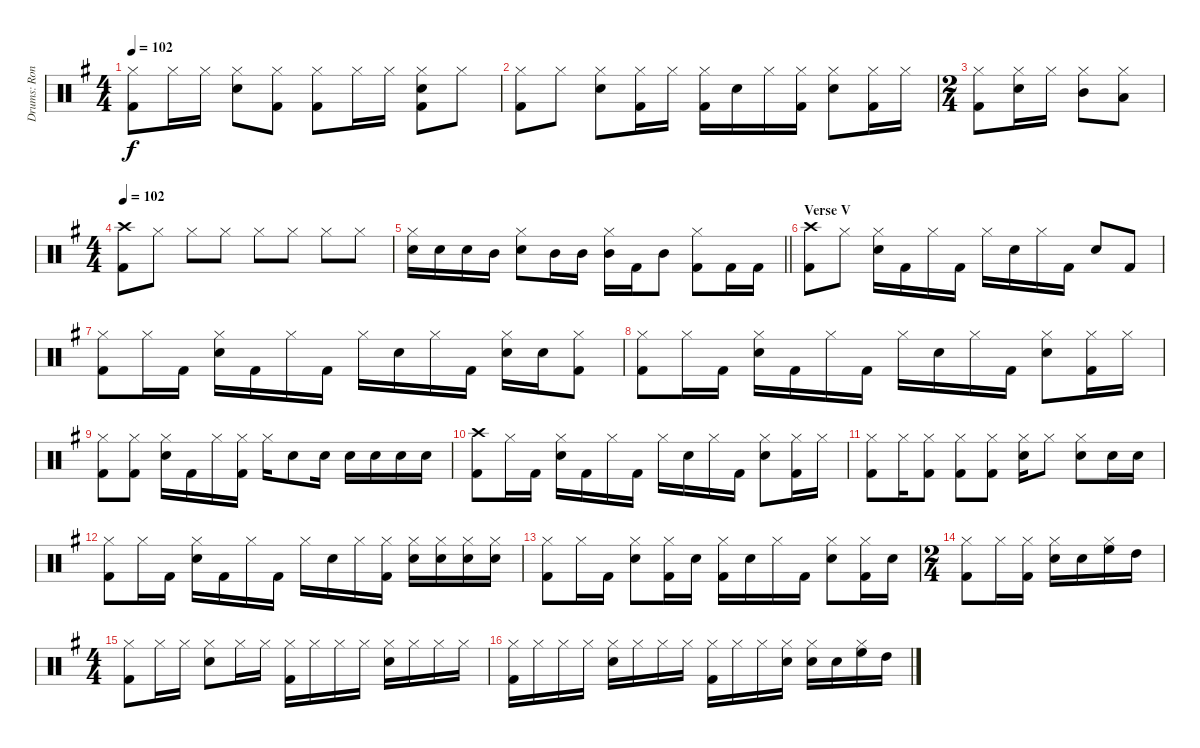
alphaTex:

\track ("Drums: Ronnie" "Drums: Ron") {instrument percussion}
\staff {score}
\articulation defaults
\ts (4 4)
\tempo 102
\clef neutral
\ks g
("Hi-Hat (closed)" "Kick (hit) 2").8{dy f} "Hi-Hat (closed)".16 "Hi-Hat (closed)".16 ("Hi-Hat (closed)" "Electric Snare (hit)").8 ("Hi-Hat (closed)" "Kick (hit) 2").8 ("Hi-Hat (closed)" "Kick (hit) 2").8 "Hi-Hat (closed)".16 "Hi-Hat (closed)".16 ("Hi-Hat (closed)" "Electric Snare (hit)" "Kick (hit) 2").8 "Hi-Hat (closed)".8 |
("Hi-Hat (closed)" "Kick (hit) 2").8 "Hi-Hat (closed)".8 ("Hi-Hat (closed)" "Electric Snare (hit)").8 ("Hi-Hat (closed)" "Kick (hit) 2").16 "Hi-Hat (closed)".16 ("Hi-Hat (closed)" "Kick (hit) 2").16 "Electric Snare (hit)".16 "Hi-Hat (closed)".16 ("Hi-Hat (closed)" "Kick (hit) 2").16 ("Hi-Hat (closed)" "Electric Snare (hit)").8 ("Hi-Hat (closed)" "Kick (hit) 2").16 "Hi-Hat (closed)".16 |
\ts (2 4)
("Hi-Hat (closed)" "Kick (hit) 2").8 ("Hi-Hat (closed)" "Electric Snare (hit)").16 "Hi-Hat (closed)".16 ("Hi-Hat (closed)" "Mid Tom (hit)").8 ("Hi-Hat (closed)" "Low Tom (hit)").8 |
\ts (4 4)
\tempo 102
("Crash high (hit)" "Kick (hit) 2").8 "Hi-Hat (closed)".8 "Hi-Hat (closed)".8 "Hi-Hat (closed)".8 "Hi-Hat (closed)".8 "Hi-Hat (closed)".8 "Hi-Hat (closed)".8 "Hi-Hat (closed)".8 |
\barLineRight lightlight
("Hi-Hat (closed)" "Electric Snare (hit)").16 "Electric Snare (hit)".16 "Electric Snare (hit)".16 "Mid Tom (hit)".16 ("Hi-Hat (closed)" "Electric Snare (hit)").8 "Mid Tom (hit)".16 "Mid Tom (hit)".16 ("Hi-Hat (closed)" "Mid Tom (hit)").16 "Kick (hit) 2".16 "Mid Tom (hit)".8 ("Hi-Hat (closed)" "Kick (hit) 2").8 "Kick (hit) 2".16 "Kick (hit) 2".16 |
\section ("" "Verse V")
("Crash high (hit)" "Kick (hit) 2").8 "Hi-Hat (closed)".8 ("Hi-Hat (closed)" "Electric Snare (hit)").16 "Kick (hit) 2".16 "Hi-Hat (closed)".16 "Kick (hit) 2".16 "Hi-Hat (closed)".16 "Electric Snare (hit)".16 "Hi-Hat (closed)".16 "Kick (hit) 2".16 "Electric Snare (hit)".8 "Kick (hit) 2".8 |
("Hi-Hat (closed)" "Kick (hit) 2").8 "Hi-Hat (closed)".16 "Kick (hit) 2".16 ("Hi-Hat (closed)" "Electric Snare (hit)").16 "Kick (hit) 2".16 "Hi-Hat (closed)".16 "Kick (hit) 2".16 "Hi-Hat (closed)".16 "Electric Snare (hit)".16 "Hi-Hat (closed)".16 "Kick (hit) 2".16 ("Hi-Hat (closed)" "Electric Snare (hit)").16 "Electric Snare (hit)".16 ("Hi-Hat (closed)" "Kick (hit) 2").8 |
("Hi-Hat (closed)" "Kick (hit) 2").8 "Hi-Hat (closed)".16 "Kick (hit) 2".16 ("Hi-Hat (closed)" "Electric Snare (hit)").16 "Kick (hit) 2".16 "Hi-Hat (closed)".16 "Kick (hit) 2".16 "Hi-Hat (closed)".16 "Electric Snare (hit)".16 "Hi-Hat (closed)".16 "Kick (hit) 2".16 ("Hi-Hat (closed)" "Electric Snare (hit)").8 ("Hi-Hat (closed)" "Kick (hit) 2").16 "Hi-Hat (closed)".16 |
("Hi-Hat (closed)" "Kick (hit) 2").8 ("Hi-Hat (closed)" "Kick (hit) 2").8 ("Hi-Hat (closed)" "Electric Snare (hit)").16 "Kick (hit) 2".16 "Hi-Hat (closed)".16 ("Hi-Hat (closed)" "Kick (hit) 2").16 "Hi-Hat (closed)".16 "Electric Snare (hit)".8 "Electric Snare (hit)".16 "Electric Snare (hit)".16 "Electric Snare (hit)".16 "Electric Snare (hit)".16 "Electric Snare (hit)".16 |
("Crash high (hit)" "Kick (hit) 2").8 "Hi-Hat (closed)".16 "Kick (hit) 2".16 ("Hi-Hat (closed)" "Electric Snare (hit)").16 "Kick (hit) 2".16 "Hi-Hat (closed)".16 "Kick (hit) 2".16 "Hi-Hat (closed)".16 "Electric Snare (hit)".16 "Hi-Hat (closed)".16 "Kick (hit) 2".16 ("Hi-Hat (closed)" "Electric Snare (hit)").8 ("Hi-Hat (closed)" "Kick (hit) 2").16 "Hi-Hat (closed)".16 |
("Hi-Hat (closed)" "Kick (hit) 2").8 "Hi-Hat (closed)".16 ("Hi-Hat (closed)" "Kick (hit) 2").8 ("Hi-Hat (closed)" "Kick (hit) 2").8 ("Hi-Hat (closed)" "Kick (hit) 2").8 ("Hi-Hat (closed)" "Electric Snare (hit)").16 "Hi-Hat (closed)".8 ("Hi-Hat (closed)" "Electric Snare (hit)").8 "Electric Snare (hit)".16 "Electric Snare (hit)".16 |
("Hi-Hat (closed)" "Kick (hit) 2").8 "Hi-Hat (closed)".16 "Kick (hit) 2".16 ("Hi-Hat (closed)" "Electric Snare (hit)").16 "Kick (hit) 2".16 "Hi-Hat (closed)".16 "Kick (hit) 2".16 "Hi-Hat (closed)".16 "Electric Snare (hit)".16 "Hi-Hat (closed)".16 ("Hi-Hat (closed)" "Kick (hit) 2").16 ("Hi-Hat (closed)" "Electric Snare (hit)").16 ("Hi-Hat (closed)" "Electric Snare (hit)").16 ("Hi-Hat (closed)" "Electric Snare (hit)").16 ("Hi-Hat (closed)" "Electric Snare (hit)").16 |
("Hi-Hat (closed)" "Kick (hit) 2").8 "Hi-Hat (closed)".16 "Kick (hit) 2".16 ("Hi-Hat (closed)" "Electric Snare (hit)").8 ("Hi-Hat (closed)" "Kick (hit) 2").16 "Electric Snare (hit)".16 ("Hi-Hat (closed)" "Kick (hit) 2").16 "Electric Snare (hit)".16 "Hi-Hat (closed)".16 "Kick (hit) 2".16 ("Hi-Hat (closed)" "Electric Snare (hit)").8 ("Hi-Hat (closed)" "Kick (hit) 2").16 "Electric Snare (hit)".16 |
\ts (2 4)
("Hi-Hat (closed)" "Kick (hit) 2").8 "Hi-Hat (closed)".16 ("Hi-Hat (closed)" "Kick (hit) 2").16 ("Hi-Hat (closed)" "Electric Snare (hit)").16 "Electric Snare (hit)".16 ("Hi-Hat (closed)" "High Floor Tom (hit)").16 "High Tom (hit)".16 |
\ts (4 4)
("Hi-Hat (closed)" "Kick (hit) 2").8 "Hi-Hat (closed)".16 "Hi-Hat (closed)".16 ("Hi-Hat (closed)" "Electric Snare (hit)").8 "Hi-Hat (closed)".16 "Hi-Hat (closed)".16 ("Hi-Hat (closed)" "Kick (hit) 2").16 "Hi-Hat (closed)".16 "Hi-Hat (closed)".16 "Hi-Hat (closed)".16 ("Hi-Hat (closed)" "Electric Snare (hit)").16 "Hi-Hat (closed)".16 "Hi-Hat (closed)".16 "Hi-Hat (closed)".16 |
("Hi-Hat (closed)" "Kick (hit) 2").16 "Hi-Hat (closed)".16 "Hi-Hat (closed)".16 "Hi-Hat (closed)".16 ("Hi-Hat (closed)" "Electric Snare (hit)").16 "Hi-Hat (closed)".16 "Hi-Hat (closed)".16 "Hi-Hat (closed)".16 ("Hi-Hat (closed)" "Kick (hit) 2").16 "Hi-Hat (closed)".16 "Hi-Hat (closed)".16 ("Hi-Hat (closed)" "Electric Snare (hit)").16 ("Hi-Hat (closed)" "Electric Snare (hit)").16 "Electric Snare (hit)".16 ("Hi-Hat (closed)" "High Floor Tom (hit)").16 "High Tom (hit)".16
